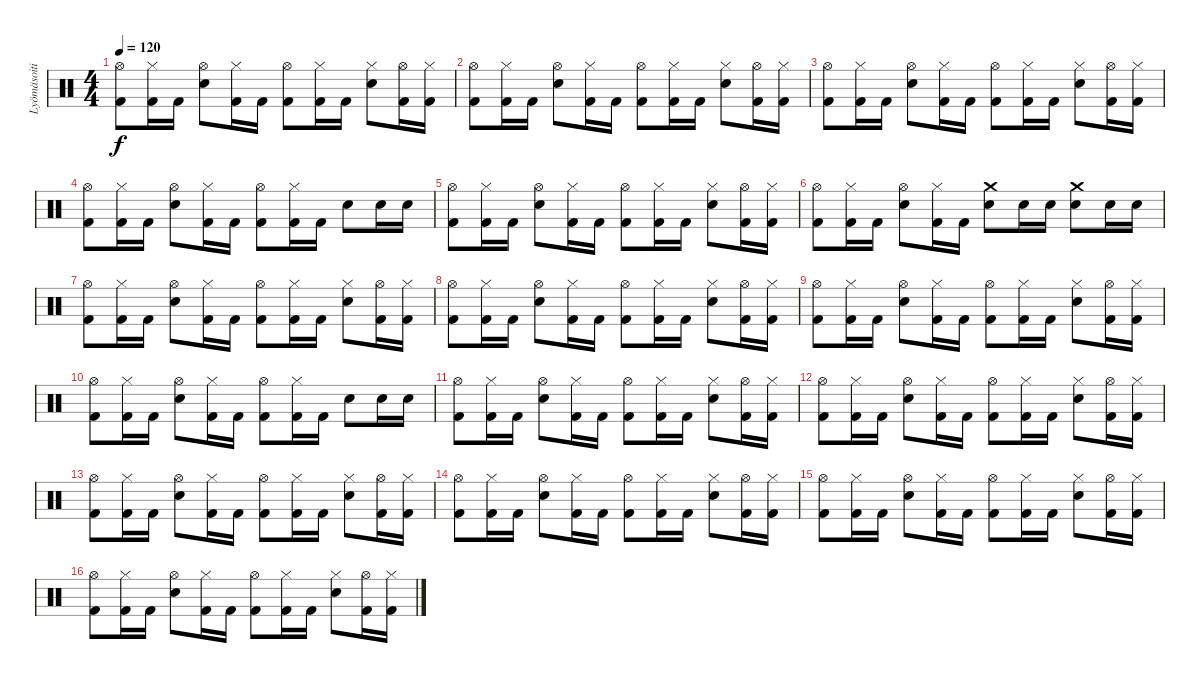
\track ("Lyömäsoitin" "Lyömäsoiti") {instrument percussion}
\staff {score}
\articulation defaults
\ts (4 4)
\tempo 120
\clef neutral
\ks c
("Hi-Hat (open)" "Kick (hit) 2").8{dy f} ("Hi-Hat (closed)" "Kick (hit) 2").16 "Kick (hit) 2".16 ("Hi-Hat (open)" "Electric Snare (hit)").8 ("Hi-Hat (closed)" "Kick (hit) 2").16 "Kick (hit) 2".16 ("Hi-Hat (open)" "Kick (hit) 2").8 ("Hi-Hat (closed)" "Kick (hit) 2").16 "Kick (hit) 2".16 ("Hi-Hat (closed)" "Electric Snare (hit)").8 ("Hi-Hat (open)" "Kick (hit) 2").16 ("Hi-Hat (closed)" "Kick (hit) 2").16 |
("Hi-Hat (open)" "Kick (hit) 2").8 ("Hi-Hat (closed)" "Kick (hit) 2").16 "Kick (hit) 2".16 ("Hi-Hat (open)" "Electric Snare (hit)").8 ("Hi-Hat (closed)" "Kick (hit) 2").16 "Kick (hit) 2".16 ("Hi-Hat (open)" "Kick (hit) 2").8 ("Hi-Hat (closed)" "Kick (hit) 2").16 "Kick (hit) 2".16 ("Hi-Hat (closed)" "Electric Snare (hit)").8 ("Hi-Hat (open)" "Kick (hit) 2").16 ("Hi-Hat (closed)" "Kick (hit) 2").16 |
("Hi-Hat (open)" "Kick (hit) 2").8 ("Hi-Hat (closed)" "Kick (hit) 2").16 "Kick (hit) 2".16 ("Hi-Hat (open)" "Electric Snare (hit)").8 ("Hi-Hat (closed)" "Kick (hit) 2").16 "Kick (hit) 2".16 ("Hi-Hat (open)" "Kick (hit) 2").8 ("Hi-Hat (closed)" "Kick (hit) 2").16 "Kick (hit) 2".16 ("Hi-Hat (closed)" "Electric Snare (hit)").8 ("Hi-Hat (open)" "Kick (hit) 2").16 ("Hi-Hat (closed)" "Kick (hit) 2").16 |
("Hi-Hat (open)" "Kick (hit) 2").8 ("Hi-Hat (closed)" "Kick (hit) 2").16 "Kick (hit) 2".16 ("Hi-Hat (open)" "Electric Snare (hit)").8 ("Hi-Hat (closed)" "Kick (hit) 2").16 "Kick (hit) 2".16 ("Hi-Hat (open)" "Kick (hit) 2").8 ("Hi-Hat (closed)" "Kick (hit) 2").16 "Kick (hit) 2".16 "Electric Snare (hit)".8 "Electric Snare (hit)".16 "Electric Snare (hit)".16 |
("Hi-Hat (open)" "Kick (hit) 2").8 ("Hi-Hat (closed)" "Kick (hit) 2").16 "Kick (hit) 2".16 ("Hi-Hat (open)" "Electric Snare (hit)").8 ("Hi-Hat (closed)" "Kick (hit) 2").16 "Kick (hit) 2".16 ("Hi-Hat (open)" "Kick (hit) 2").8 ("Hi-Hat (closed)" "Kick (hit) 2").16 "Kick (hit) 2".16 ("Hi-Hat (closed)" "Electric Snare (hit)").8 ("Hi-Hat (open)" "Kick (hit) 2").16 ("Hi-Hat (closed)" "Kick (hit) 2").16 |
("Hi-Hat (open)" "Kick (hit) 2").8 ("Hi-Hat (closed)" "Kick (hit) 2").16 "Kick (hit) 2".16 ("Hi-Hat (open)" "Electric Snare (hit)").8 ("Hi-Hat (closed)" "Kick (hit) 2").16 "Kick (hit) 2".16 ("Crash medium (hit)" "Electric Snare (hit)").8 "Electric Snare (hit)".16 "Electric Snare (hit)".16 ("Crash medium (hit)" "Electric Snare (hit)").8 "Electric Snare (hit)".16 "Electric Snare (hit)".16 |
("Hi-Hat (open)" "Kick (hit) 2").8 ("Hi-Hat (closed)" "Kick (hit) 2").16 "Kick (hit) 2".16 ("Hi-Hat (open)" "Electric Snare (hit)").8 ("Hi-Hat (closed)" "Kick (hit) 2").16 "Kick (hit) 2".16 ("Hi-Hat (open)" "Kick (hit) 2").8 ("Hi-Hat (closed)" "Kick (hit) 2").16 "Kick (hit) 2".16 ("Hi-Hat (closed)" "Electric Snare (hit)").8 ("Hi-Hat (open)" "Kick (hit) 2").16 ("Hi-Hat (closed)" "Kick (hit) 2").16 |
("Hi-Hat (open)" "Kick (hit) 2").8 ("Hi-Hat (closed)" "Kick (hit) 2").16 "Kick (hit) 2".16 ("Hi-Hat (open)" "Electric Snare (hit)").8 ("Hi-Hat (closed)" "Kick (hit) 2").16 "Kick (hit) 2".16 ("Hi-Hat (open)" "Kick (hit) 2").8 ("Hi-Hat (closed)" "Kick (hit) 2").16 "Kick (hit) 2".16 ("Hi-Hat (closed)" "Electric Snare (hit)").8 ("Hi-Hat (open)" "Kick (hit) 2").16 ("Hi-Hat (closed)" "Kick (hit) 2").16 |
("Hi-Hat (open)" "Kick (hit) 2").8 ("Hi-Hat (closed)" "Kick (hit) 2").16 "Kick (hit) 2".16 ("Hi-Hat (open)" "Electric Snare (hit)").8 ("Hi-Hat (closed)" "Kick (hit) 2").16 "Kick (hit) 2".16 ("Hi-Hat (open)" "Kick (hit) 2").8 ("Hi-Hat (closed)" "Kick (hit) 2").16 "Kick (hit) 2".16 ("Hi-Hat (closed)" "Electric Snare (hit)").8 ("Hi-Hat (open)" "Kick (hit) 2").16 ("Hi-Hat (closed)" "Kick (hit) 2").16 |
("Hi-Hat (open)" "Kick (hit) 2").8 ("Hi-Hat (closed)" "Kick (hit) 2").16 "Kick (hit) 2".16 ("Hi-Hat (open)" "Electric Snare (hit)").8 ("Hi-Hat (closed)" "Kick (hit) 2").16 "Kick (hit) 2".16 ("Hi-Hat (open)" "Kick (hit) 2").8 ("Hi-Hat (closed)" "Kick (hit) 2").16 "Kick (hit) 2".16 "Electric Snare (hit)".8 "Electric Snare (hit)".16 "Electric Snare (hit)".16 |
("Hi-Hat (open)" "Kick (hit) 2").8 ("Hi-Hat (closed)" "Kick (hit) 2").16 "Kick (hit) 2".16 ("Hi-Hat (open)" "Electric Snare (hit)").8 ("Hi-Hat (closed)" "Kick (hit) 2").16 "Kick (hit) 2".16 ("Hi-Hat (open)" "Kick (hit) 2").8 ("Hi-Hat (closed)" "Kick (hit) 2").16 "Kick (hit) 2".16 ("Hi-Hat (closed)" "Electric Snare (hit)").8 ("Hi-Hat (open)" "Kick (hit) 2").16 ("Hi-Hat (closed)" "Kick (hit) 2").16 |
("Hi-Hat (open)" "Kick (hit) 2").8 ("Hi-Hat (closed)" "Kick (hit) 2").16 "Kick (hit) 2".16 ("Hi-Hat (open)" "Electric Snare (hit)").8 ("Hi-Hat (closed)" "Kick (hit) 2").16 "Kick (hit) 2".16 ("Hi-Hat (open)" "Kick (hit) 2").8 ("Hi-Hat (closed)" "Kick (hit) 2").16 "Kick (hit) 2".16 ("Hi-Hat (closed)" "Electric Snare (hit)").8 ("Hi-Hat (open)" "Kick (hit) 2").16 ("Hi-Hat (closed)" "Kick (hit) 2").16 |
("Hi-Hat (open)" "Kick (hit) 2").8 ("Hi-Hat (closed)" "Kick (hit) 2").16 "Kick (hit) 2".16 ("Hi-Hat (open)" "Electric Snare (hit)").8 ("Hi-Hat (closed)" "Kick (hit) 2").16 "Kick (hit) 2".16 ("Hi-Hat (open)" "Kick (hit) 2").8 ("Hi-Hat (closed)" "Kick (hit) 2").16 "Kick (hit) 2".16 ("Hi-Hat (closed)" "Electric Snare (hit)").8 ("Hi-Hat (open)" "Kick (hit) 2").16 ("Hi-Hat (closed)" "Kick (hit) 2").16 |
("Hi-Hat (open)" "Kick (hit) 2").8 ("Hi-Hat (closed)" "Kick (hit) 2").16 "Kick (hit) 2".16 ("Hi-Hat (open)" "Electric Snare (hit)").8 ("Hi-Hat (closed)" "Kick (hit) 2").16 "Kick (hit) 2".16 ("Hi-Hat (open)" "Kick (hit) 2").8 ("Hi-Hat (closed)" "Kick (hit) 2").16 "Kick (hit) 2".16 ("Hi-Hat (closed)" "Electric Snare (hit)").8 ("Hi-Hat (open)" "Kick (hit) 2").16 ("Hi-Hat (closed)" "Kick (hit) 2").16 |
("Hi-Hat (open)" "Kick (hit) 2").8 ("Hi-Hat (closed)" "Kick (hit) 2").16 "Kick (hit) 2".16 ("Hi-Hat (open)" "Electric Snare (hit)").8 ("Hi-Hat (closed)" "Kick (hit) 2").16 "Kick (hit) 2".16 ("Hi-Hat (open)" "Kick (hit) 2").8 ("Hi-Hat (closed)" "Kick (hit) 2").16 "Kick (hit) 2".16 ("Hi-Hat (closed)" "Electric Snare (hit)").8 ("Hi-Hat (open)" "Kick (hit) 2").16 ("Hi-Hat (closed)" "Kick (hit) 2").16 |
("Hi-Hat (open)" "Kick (hit) 2").8 ("Hi-Hat (closed)" "Kick (hit) 2").16 "Kick (hit) 2".16 ("Hi-Hat (open)" "Electric Snare (hit)").8 ("Hi-Hat (closed)" "Kick (hit) 2").16 "Kick (hit) 2".16 ("Hi-Hat (open)" "Kick (hit) 2").8 ("Hi-Hat (closed)" "Kick (hit) 2").16 "Kick (hit) 2".16 ("Hi-Hat (closed)" "Electric Snare (hit)").8 ("Hi-Hat (open)" "Kick (hit) 2").16 ("Hi-Hat (closed)" "Kick (hit) 2").16
